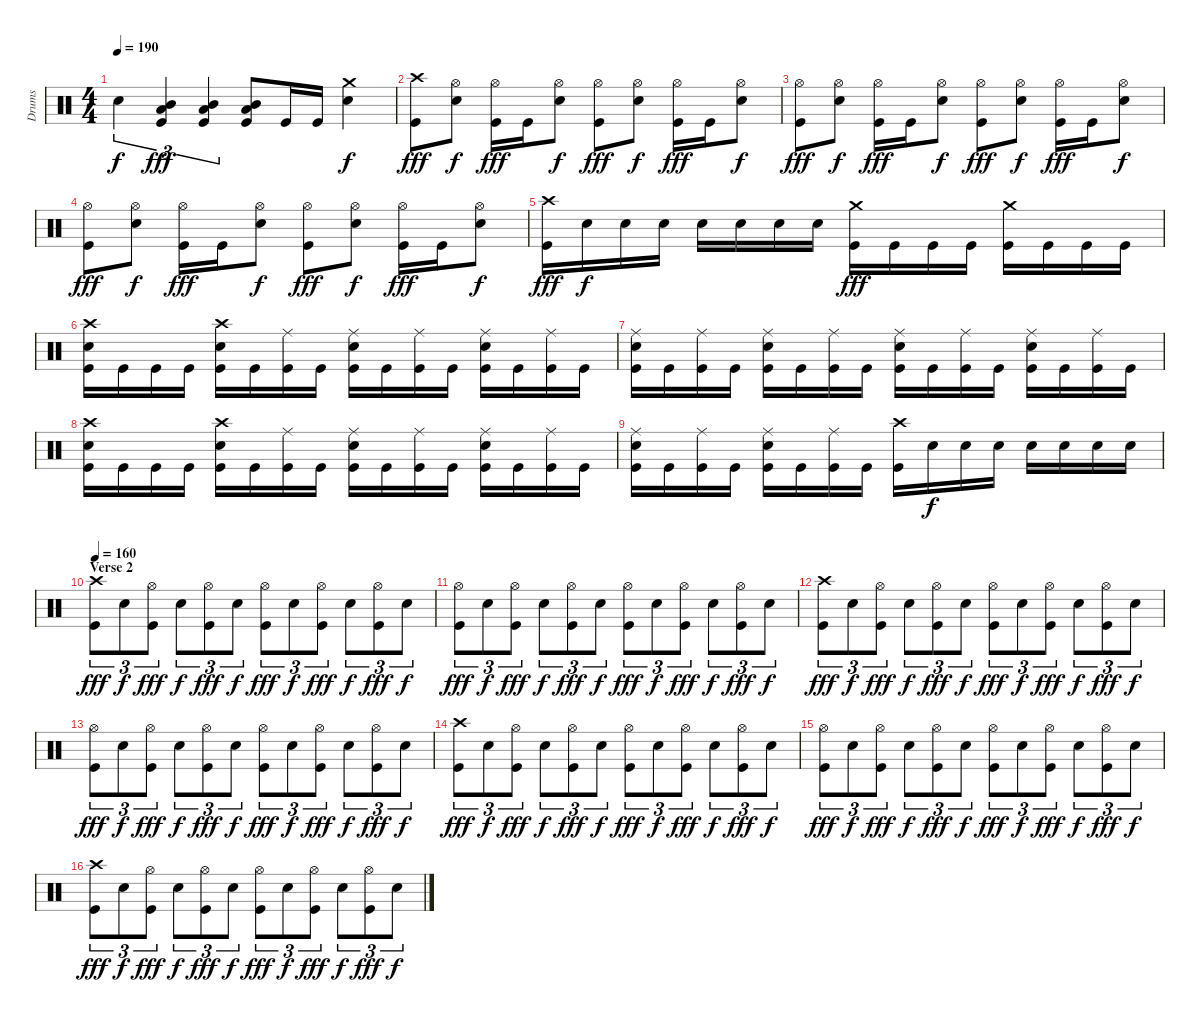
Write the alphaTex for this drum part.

\track ("Drums" "Drums") {instrument percussion}
\staff {score}
\articulation defaults
\ts (4 4)
\tempo 190
\clef neutral
\ks c "Electric Snare (hit)".4{tu (3 2) dy f}
("Mid Tom (hit)" "Low Tom (hit)" "Kick (hit)").4{tu (3 2) dy fff} ("Mid Tom (hit)" "Low Tom (hit)" "Kick (hit)").4{tu (3 2)} ("Mid Tom (hit)" "Low Tom (hit)" "Kick (hit)").8 "Kick (hit)".16 "Kick (hit)".16 ("Crash medium (hit)" "Electric Snare (hit)").4{dy f} |
("Crash high (hit)" "Kick (hit)").8{dy fff} ("Hi-Hat (open)" "Electric Snare (hit)").8{dy f} ("Hi-Hat (open)" "Kick (hit)").16{dy fff} "Kick (hit)".16 ("Hi-Hat (open)" "Electric Snare (hit)").8{dy f} ("Hi-Hat (open)" "Kick (hit)").8{dy fff} ("Hi-Hat (open)" "Electric Snare (hit)").8{dy f} ("Hi-Hat (open)" "Kick (hit)").16{dy fff} "Kick (hit)".16 ("Hi-Hat (open)" "Electric Snare (hit)").8{dy f} |
("Hi-Hat (open)" "Kick (hit)").8{dy fff} ("Hi-Hat (open)" "Electric Snare (hit)").8{dy f} ("Hi-Hat (open)" "Kick (hit)").16{dy fff} "Kick (hit)".16 ("Hi-Hat (open)" "Electric Snare (hit)").8{dy f} ("Hi-Hat (open)" "Kick (hit)").8{dy fff} ("Hi-Hat (open)" "Electric Snare (hit)").8{dy f} ("Hi-Hat (open)" "Kick (hit)").16{dy fff} "Kick (hit)".16 ("Hi-Hat (open)" "Electric Snare (hit)").8{dy f} |
("Hi-Hat (open)" "Kick (hit)").8{dy fff} ("Hi-Hat (open)" "Electric Snare (hit)").8{dy f} ("Hi-Hat (open)" "Kick (hit)").16{dy fff} "Kick (hit)".16 ("Hi-Hat (open)" "Electric Snare (hit)").8{dy f} ("Hi-Hat (open)" "Kick (hit)").8{dy fff} ("Hi-Hat (open)" "Electric Snare (hit)").8{dy f} ("Hi-Hat (open)" "Kick (hit)").16{dy fff} "Kick (hit)".16 ("Hi-Hat (open)" "Electric Snare (hit)").8{dy f} |
("Crash high (hit)" "Kick (hit)").16{dy fff} "Electric Snare (hit)".16{dy f} "Electric Snare (hit)".16 "Electric Snare (hit)".16 "Electric Snare (hit)".16 "Electric Snare (hit)".16 "Electric Snare (hit)".16 "Electric Snare (hit)".16 ("Crash medium (hit)" "Kick (hit)").16{dy fff} "Kick (hit)".16 "Kick (hit)".16 "Kick (hit)".16 ("Crash medium (hit)" "Kick (hit)").16 "Kick (hit)".16 "Kick (hit)".16 "Kick (hit)".16 |
("Crash high (hit)" "Electric Snare (hit)" "Kick (hit)").16 "Kick (hit)".16 "Kick (hit)".16 "Kick (hit)".16 ("Crash high (hit)" "Electric Snare (hit)" "Kick (hit)").16 "Kick (hit)".16 ("Ride (middle)" "Kick (hit)").16 "Kick (hit)".16 ("Ride (middle)" "Electric Snare (hit)" "Kick (hit)").16 "Kick (hit)".16 ("Ride (middle)" "Kick (hit)").16 "Kick (hit)".16 ("Ride (middle)" "Electric Snare (hit)" "Kick (hit)").16 "Kick (hit)".16 ("Ride (middle)" "Kick (hit)").16 "Kick (hit)".16 |
("Ride (middle)" "Electric Snare (hit)" "Kick (hit)").16 "Kick (hit)".16 ("Ride (middle)" "Kick (hit)").16 "Kick (hit)".16 ("Ride (middle)" "Electric Snare (hit)" "Kick (hit)").16 "Kick (hit)".16 ("Ride (middle)" "Kick (hit)").16 "Kick (hit)".16 ("Ride (middle)" "Electric Snare (hit)" "Kick (hit)").16 "Kick (hit)".16 ("Ride (middle)" "Kick (hit)").16 "Kick (hit)".16 ("Ride (middle)" "Electric Snare (hit)" "Kick (hit)").16 "Kick (hit)".16 ("Ride (middle)" "Kick (hit)").16 "Kick (hit)".16 |
("Crash high (hit)" "Electric Snare (hit)" "Kick (hit)").16 "Kick (hit)".16 "Kick (hit)".16 "Kick (hit)".16 ("Crash high (hit)" "Electric Snare (hit)" "Kick (hit)").16 "Kick (hit)".16 ("Ride (middle)" "Kick (hit)").16 "Kick (hit)".16 ("Ride (middle)" "Electric Snare (hit)" "Kick (hit)").16 "Kick (hit)".16 ("Ride (middle)" "Kick (hit)").16 "Kick (hit)".16 ("Ride (middle)" "Electric Snare (hit)" "Kick (hit)").16 "Kick (hit)".16 ("Ride (middle)" "Kick (hit)").16 "Kick (hit)".16 |
("Ride (middle)" "Electric Snare (hit)" "Kick (hit)").16 "Kick (hit)".16 ("Ride (middle)" "Kick (hit)").16 "Kick (hit)".16 ("Ride (middle)" "Electric Snare (hit)" "Kick (hit)").16 "Kick (hit)".16 ("Ride (middle)" "Kick (hit)").16 "Kick (hit)".16 ("Crash high (hit)" "Kick (hit)").16 "Electric Snare (hit)".16{dy f} "Electric Snare (hit)".16 "Electric Snare (hit)".16 "Electric Snare (hit)".16 "Electric Snare (hit)".16 "Electric Snare (hit)".16 "Electric Snare (hit)".16 |
\section ("" "Verse 2")
\tempo 160
("Crash high (hit)" "Kick (hit)").8{tu (3 2) dy fff} "Electric Snare (hit)".8{tu (3 2) dy f} ("Hi-Hat (open)" "Kick (hit)").8{tu (3 2) dy fff} "Electric Snare (hit)".8{tu (3 2) dy f} ("Hi-Hat (open)" "Kick (hit)").8{tu (3 2) dy fff} "Electric Snare (hit)".8{tu (3 2) dy f} ("Hi-Hat (open)" "Kick (hit)").8{tu (3 2) dy fff} "Electric Snare (hit)".8{tu (3 2) dy f} ("Hi-Hat (open)" "Kick (hit)").8{tu (3 2) dy fff} "Electric Snare (hit)".8{tu (3 2) dy f} ("Hi-Hat (open)" "Kick (hit)").8{tu (3 2) dy fff} "Electric Snare (hit)".8{tu (3 2) dy f} |
("Hi-Hat (open)" "Kick (hit)").8{tu (3 2) dy fff} "Electric Snare (hit)".8{tu (3 2) dy f} ("Hi-Hat (open)" "Kick (hit)").8{tu (3 2) dy fff} "Electric Snare (hit)".8{tu (3 2) dy f} ("Hi-Hat (open)" "Kick (hit)").8{tu (3 2) dy fff} "Electric Snare (hit)".8{tu (3 2) dy f} ("Hi-Hat (open)" "Kick (hit)").8{tu (3 2) dy fff} "Electric Snare (hit)".8{tu (3 2) dy f} ("Hi-Hat (open)" "Kick (hit)").8{tu (3 2) dy fff} "Electric Snare (hit)".8{tu (3 2) dy f} ("Hi-Hat (open)" "Kick (hit)").8{tu (3 2) dy fff} "Electric Snare (hit)".8{tu (3 2) dy f} |
("Crash high (hit)" "Kick (hit)").8{tu (3 2) dy fff} "Electric Snare (hit)".8{tu (3 2) dy f} ("Hi-Hat (open)" "Kick (hit)").8{tu (3 2) dy fff} "Electric Snare (hit)".8{tu (3 2) dy f} ("Hi-Hat (open)" "Kick (hit)").8{tu (3 2) dy fff} "Electric Snare (hit)".8{tu (3 2) dy f} ("Hi-Hat (open)" "Kick (hit)").8{tu (3 2) dy fff} "Electric Snare (hit)".8{tu (3 2) dy f} ("Hi-Hat (open)" "Kick (hit)").8{tu (3 2) dy fff} "Electric Snare (hit)".8{tu (3 2) dy f} ("Hi-Hat (open)" "Kick (hit)").8{tu (3 2) dy fff} "Electric Snare (hit)".8{tu (3 2) dy f} |
("Hi-Hat (open)" "Kick (hit)").8{tu (3 2) dy fff} "Electric Snare (hit)".8{tu (3 2) dy f} ("Hi-Hat (open)" "Kick (hit)").8{tu (3 2) dy fff} "Electric Snare (hit)".8{tu (3 2) dy f} ("Hi-Hat (open)" "Kick (hit)").8{tu (3 2) dy fff} "Electric Snare (hit)".8{tu (3 2) dy f} ("Hi-Hat (open)" "Kick (hit)").8{tu (3 2) dy fff} "Electric Snare (hit)".8{tu (3 2) dy f} ("Hi-Hat (open)" "Kick (hit)").8{tu (3 2) dy fff} "Electric Snare (hit)".8{tu (3 2) dy f} ("Hi-Hat (open)" "Kick (hit)").8{tu (3 2) dy fff} "Electric Snare (hit)".8{tu (3 2) dy f} |
("Crash high (hit)" "Kick (hit)").8{tu (3 2) dy fff} "Electric Snare (hit)".8{tu (3 2) dy f} ("Hi-Hat (open)" "Kick (hit)").8{tu (3 2) dy fff} "Electric Snare (hit)".8{tu (3 2) dy f} ("Hi-Hat (open)" "Kick (hit)").8{tu (3 2) dy fff} "Electric Snare (hit)".8{tu (3 2) dy f} ("Hi-Hat (open)" "Kick (hit)").8{tu (3 2) dy fff} "Electric Snare (hit)".8{tu (3 2) dy f} ("Hi-Hat (open)" "Kick (hit)").8{tu (3 2) dy fff} "Electric Snare (hit)".8{tu (3 2) dy f} ("Hi-Hat (open)" "Kick (hit)").8{tu (3 2) dy fff} "Electric Snare (hit)".8{tu (3 2) dy f} |
("Hi-Hat (open)" "Kick (hit)").8{tu (3 2) dy fff} "Electric Snare (hit)".8{tu (3 2) dy f} ("Hi-Hat (open)" "Kick (hit)").8{tu (3 2) dy fff} "Electric Snare (hit)".8{tu (3 2) dy f} ("Hi-Hat (open)" "Kick (hit)").8{tu (3 2) dy fff} "Electric Snare (hit)".8{tu (3 2) dy f} ("Hi-Hat (open)" "Kick (hit)").8{tu (3 2) dy fff} "Electric Snare (hit)".8{tu (3 2) dy f} ("Hi-Hat (open)" "Kick (hit)").8{tu (3 2) dy fff} "Electric Snare (hit)".8{tu (3 2) dy f} ("Hi-Hat (open)" "Kick (hit)").8{tu (3 2) dy fff} "Electric Snare (hit)".8{tu (3 2) dy f} |
("Crash high (hit)" "Kick (hit)").8{tu (3 2) dy fff} "Electric Snare (hit)".8{tu (3 2) dy f} ("Hi-Hat (open)" "Kick (hit)").8{tu (3 2) dy fff} "Electric Snare (hit)".8{tu (3 2) dy f} ("Hi-Hat (open)" "Kick (hit)").8{tu (3 2) dy fff} "Electric Snare (hit)".8{tu (3 2) dy f} ("Hi-Hat (open)" "Kick (hit)").8{tu (3 2) dy fff} "Electric Snare (hit)".8{tu (3 2) dy f} ("Hi-Hat (open)" "Kick (hit)").8{tu (3 2) dy fff} "Electric Snare (hit)".8{tu (3 2) dy f} ("Hi-Hat (open)" "Kick (hit)").8{tu (3 2) dy fff} "Electric Snare (hit)".8{tu (3 2) dy f}
